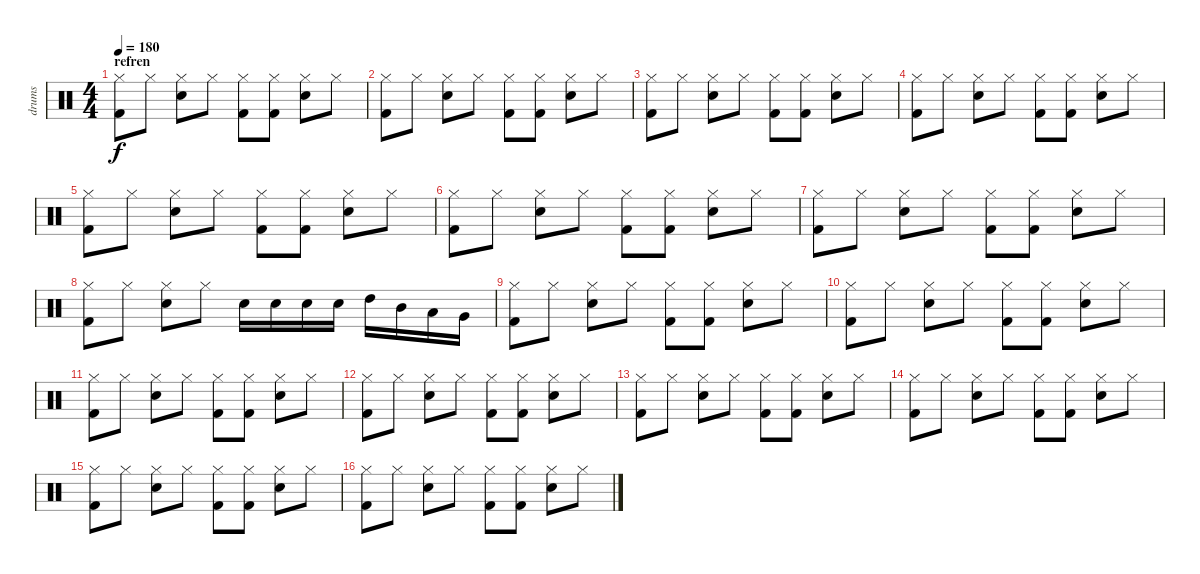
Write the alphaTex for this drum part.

\track ("drums" "drums") {instrument percussion}
\staff {score}
\articulation defaults
\ts (4 4)
\section ("" "refren")
\tempo 180
\clef neutral
\ks c
("Hi-Hat (closed)" "Kick (hit) 2").8{dy f} "Hi-Hat (closed)".8 ("Hi-Hat (closed)" "Snare (hit) 2").8 "Hi-Hat (closed)".8 ("Hi-Hat (closed)" "Kick (hit) 2").8 ("Hi-Hat (closed)" "Kick (hit) 2").8 ("Hi-Hat (closed)" "Snare (hit) 2").8 "Hi-Hat (closed)".8 |
("Hi-Hat (closed)" "Kick (hit) 2").8 "Hi-Hat (closed)".8 ("Hi-Hat (closed)" "Snare (hit) 2").8 "Hi-Hat (closed)".8 ("Hi-Hat (closed)" "Kick (hit) 2").8 ("Hi-Hat (closed)" "Kick (hit) 2").8 ("Hi-Hat (closed)" "Snare (hit) 2").8 "Hi-Hat (closed)".8 |
("Hi-Hat (closed)" "Kick (hit) 2").8 "Hi-Hat (closed)".8 ("Hi-Hat (closed)" "Snare (hit) 2").8 "Hi-Hat (closed)".8 ("Hi-Hat (closed)" "Kick (hit) 2").8 ("Hi-Hat (closed)" "Kick (hit) 2").8 ("Hi-Hat (closed)" "Snare (hit) 2").8 "Hi-Hat (closed)".8 |
("Hi-Hat (closed)" "Kick (hit) 2").8 "Hi-Hat (closed)".8 ("Hi-Hat (closed)" "Snare (hit) 2").8 "Hi-Hat (closed)".8 ("Hi-Hat (closed)" "Kick (hit) 2").8 ("Hi-Hat (closed)" "Kick (hit) 2").8 ("Hi-Hat (closed)" "Snare (hit) 2").8 "Hi-Hat (closed)".8 |
("Hi-Hat (closed)" "Kick (hit) 2").8 "Hi-Hat (closed)".8 ("Hi-Hat (closed)" "Snare (hit) 2").8 "Hi-Hat (closed)".8 ("Hi-Hat (closed)" "Kick (hit) 2").8 ("Hi-Hat (closed)" "Kick (hit) 2").8 ("Hi-Hat (closed)" "Snare (hit) 2").8 "Hi-Hat (closed)".8 |
("Hi-Hat (closed)" "Kick (hit) 2").8 "Hi-Hat (closed)".8 ("Hi-Hat (closed)" "Snare (hit) 2").8 "Hi-Hat (closed)".8 ("Hi-Hat (closed)" "Kick (hit) 2").8 ("Hi-Hat (closed)" "Kick (hit) 2").8 ("Hi-Hat (closed)" "Snare (hit) 2").8 "Hi-Hat (closed)".8 |
("Hi-Hat (closed)" "Kick (hit) 2").8 "Hi-Hat (closed)".8 ("Hi-Hat (closed)" "Snare (hit) 2").8 "Hi-Hat (closed)".8 ("Hi-Hat (closed)" "Kick (hit) 2").8 ("Hi-Hat (closed)" "Kick (hit) 2").8 ("Hi-Hat (closed)" "Snare (hit) 2").8 "Hi-Hat (closed)".8 |
("Hi-Hat (closed)" "Kick (hit) 2").8 "Hi-Hat (closed)".8 ("Hi-Hat (closed)" "Snare (hit) 2").8 "Hi-Hat (closed)".8 "Snare (hit) 2".16 "Snare (hit) 2".16 "Snare (hit) 2".16 "Snare (hit) 2".16 "High Tom (hit)".16 "Mid Tom (hit)".16 "Low Tom (hit)".16 "Very Low Tom (hit)".16 |
("Hi-Hat (closed)" "Kick (hit) 2").8 "Hi-Hat (closed)".8 ("Hi-Hat (closed)" "Snare (hit) 2").8 "Hi-Hat (closed)".8 ("Hi-Hat (closed)" "Kick (hit) 2").8 ("Hi-Hat (closed)" "Kick (hit) 2").8 ("Hi-Hat (closed)" "Snare (hit) 2").8 "Hi-Hat (closed)".8 |
("Hi-Hat (closed)" "Kick (hit) 2").8 "Hi-Hat (closed)".8 ("Hi-Hat (closed)" "Snare (hit) 2").8 "Hi-Hat (closed)".8 ("Hi-Hat (closed)" "Kick (hit) 2").8 ("Hi-Hat (closed)" "Kick (hit) 2").8 ("Hi-Hat (closed)" "Snare (hit) 2").8 "Hi-Hat (closed)".8 |
("Hi-Hat (closed)" "Kick (hit) 2").8 "Hi-Hat (closed)".8 ("Hi-Hat (closed)" "Snare (hit) 2").8 "Hi-Hat (closed)".8 ("Hi-Hat (closed)" "Kick (hit) 2").8 ("Hi-Hat (closed)" "Kick (hit) 2").8 ("Hi-Hat (closed)" "Snare (hit) 2").8 "Hi-Hat (closed)".8 |
("Hi-Hat (closed)" "Kick (hit) 2").8 "Hi-Hat (closed)".8 ("Hi-Hat (closed)" "Snare (hit) 2").8 "Hi-Hat (closed)".8 ("Hi-Hat (closed)" "Kick (hit) 2").8 ("Hi-Hat (closed)" "Kick (hit) 2").8 ("Hi-Hat (closed)" "Snare (hit) 2").8 "Hi-Hat (closed)".8 |
("Hi-Hat (closed)" "Kick (hit) 2").8 "Hi-Hat (closed)".8 ("Hi-Hat (closed)" "Snare (hit) 2").8 "Hi-Hat (closed)".8 ("Hi-Hat (closed)" "Kick (hit) 2").8 ("Hi-Hat (closed)" "Kick (hit) 2").8 ("Hi-Hat (closed)" "Snare (hit) 2").8 "Hi-Hat (closed)".8 |
("Hi-Hat (closed)" "Kick (hit) 2").8 "Hi-Hat (closed)".8 ("Hi-Hat (closed)" "Snare (hit) 2").8 "Hi-Hat (closed)".8 ("Hi-Hat (closed)" "Kick (hit) 2").8 ("Hi-Hat (closed)" "Kick (hit) 2").8 ("Hi-Hat (closed)" "Snare (hit) 2").8 "Hi-Hat (closed)".8 |
("Hi-Hat (closed)" "Kick (hit) 2").8 "Hi-Hat (closed)".8 ("Hi-Hat (closed)" "Snare (hit) 2").8 "Hi-Hat (closed)".8 ("Hi-Hat (closed)" "Kick (hit) 2").8 ("Hi-Hat (closed)" "Kick (hit) 2").8 ("Hi-Hat (closed)" "Snare (hit) 2").8 "Hi-Hat (closed)".8 |
("Hi-Hat (closed)" "Kick (hit) 2").8 "Hi-Hat (closed)".8 ("Hi-Hat (closed)" "Snare (hit) 2").8 "Hi-Hat (closed)".8 ("Hi-Hat (closed)" "Kick (hit) 2").8 ("Hi-Hat (closed)" "Kick (hit) 2").8 ("Hi-Hat (closed)" "Snare (hit) 2").8 "Hi-Hat (closed)".8
